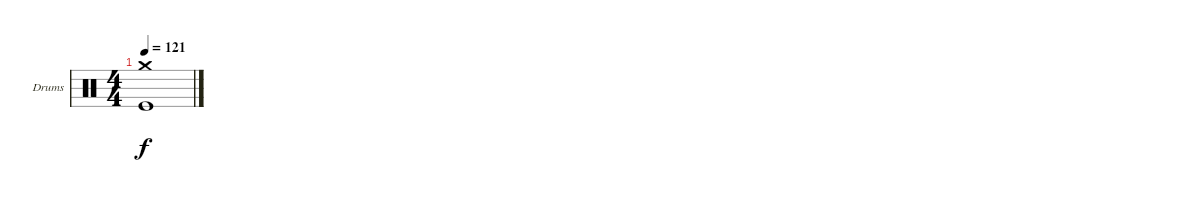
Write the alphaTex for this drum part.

\defaultSystemsLayout 4
\bracketExtendMode groupsimilarinstruments
\firstSystemTrackNameOrientation horizontal
\otherSystemsTrackNameOrientation horizontal
\track ("Drumkit" "Drums") {instrument percussion}
\staff {score}
\articulation defaults
\ts (4 4)
\tempo 121
\clef neutral
\ks c
("Kick (hit)"{t} "Crash medium (hit)"{t}).1{dy f}
